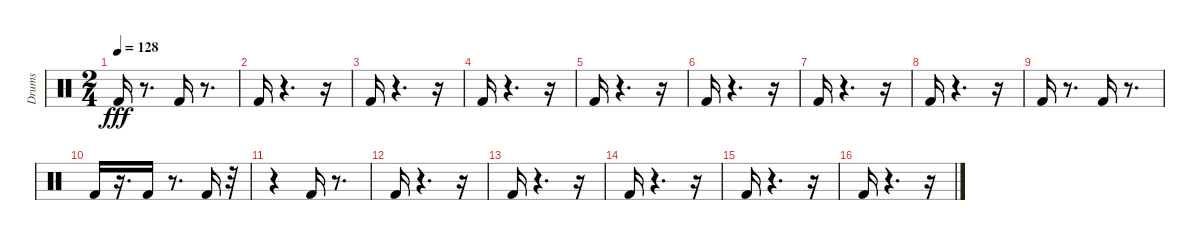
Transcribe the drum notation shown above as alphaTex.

\track ("Drums" "Drums") {instrument percussion}
\staff {score}
\articulation defaults
\ts (2 4)
\tempo 128
\clef neutral
\ks c "Kick (hit) 2".16{dy fff}
r.8{d} "Kick (hit) 2".16 r.8{d} |
"Kick (hit) 2".16 r.4{d} r.16 |
"Kick (hit) 2".16 r.4{d} r.16 |
"Kick (hit) 2".16 r.4{d} r.16 |
"Kick (hit) 2".16 r.4{d} r.16 |
"Kick (hit) 2".16 r.4{d} r.16 |
"Kick (hit) 2".16 r.4{d} r.16 |
"Kick (hit) 2".16 r.4{d} r.16 |
"Kick (hit) 2".16 r.8{d} "Kick (hit) 2".16 r.8{d} |
"Kick (hit) 2".16 r.16{d} "Kick (hit) 2".16 r.8{d} "Kick (hit) 2".16 r.32 |
r.4 "Kick (hit) 2".16 r.8{d} |
"Kick (hit) 2".16 r.4{d} r.16 |
"Kick (hit) 2".16 r.4{d} r.16 |
"Kick (hit) 2".16 r.4{d} r.16 |
"Kick (hit) 2".16 r.4{d} r.16 |
"Kick (hit) 2".16 r.4{d} r.16
